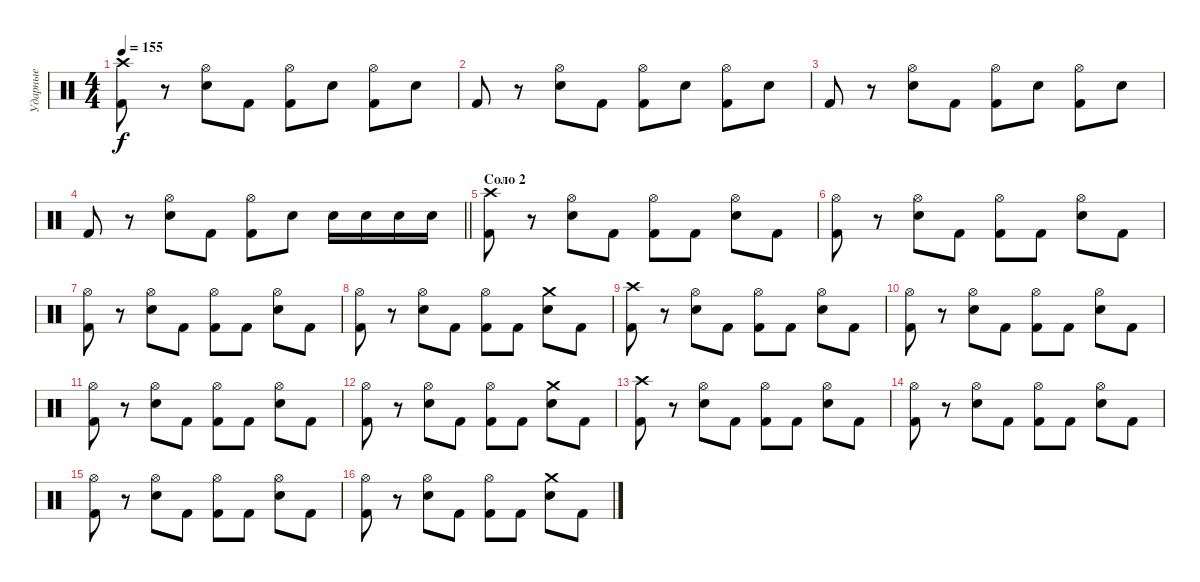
\track ("Ударные" "Ударные") {instrument percussion}
\staff {score}
\articulation defaults
\ts (4 4)
\tempo 155
\clef neutral
\ks c
("Crash high (hit)" "Kick (hit) 2").8{dy f} r.8 ("Hi-Hat (open)" "Electric Snare (hit)").8 "Kick (hit) 2".8 ("Hi-Hat (open)" "Kick (hit) 2").8 "Electric Snare (hit)".8 ("Hi-Hat (open)" "Kick (hit) 2").8 "Electric Snare (hit)".8 |
"Kick (hit) 2".8 r.8 ("Hi-Hat (open)" "Electric Snare (hit)").8 "Kick (hit) 2".8 ("Hi-Hat (open)" "Kick (hit) 2").8 "Electric Snare (hit)".8 ("Hi-Hat (open)" "Kick (hit) 2").8 "Electric Snare (hit)".8 |
"Kick (hit) 2".8 r.8 ("Hi-Hat (open)" "Electric Snare (hit)").8 "Kick (hit) 2".8 ("Hi-Hat (open)" "Kick (hit) 2").8 "Electric Snare (hit)".8 ("Hi-Hat (open)" "Kick (hit) 2").8 "Electric Snare (hit)".8 |
\barLineRight lightlight "Kick (hit) 2".8
r.8 ("Hi-Hat (open)" "Electric Snare (hit)").8 "Kick (hit) 2".8 ("Hi-Hat (open)" "Kick (hit) 2").8 "Electric Snare (hit)".8 "Electric Snare (hit)".16 "Electric Snare (hit)".16 "Electric Snare (hit)".16 "Electric Snare (hit)".16 |
\section ("" "Соло 2")
("Crash high (hit)" "Kick (hit) 2").8 r.8 ("Hi-Hat (open)" "Electric Snare (hit)").8 "Kick (hit) 2".8 ("Hi-Hat (open)" "Kick (hit) 2").8 "Kick (hit) 2".8 ("Hi-Hat (open)" "Electric Snare (hit)").8 "Kick (hit) 2".8 |
("Hi-Hat (open)" "Kick (hit) 2").8 r.8 ("Hi-Hat (open)" "Electric Snare (hit)").8 "Kick (hit) 2".8 ("Hi-Hat (open)" "Kick (hit) 2").8 "Kick (hit) 2".8 ("Hi-Hat (open)" "Electric Snare (hit)").8 "Kick (hit) 2".8 |
("Hi-Hat (open)" "Kick (hit) 2").8 r.8 ("Hi-Hat (open)" "Electric Snare (hit)").8 "Kick (hit) 2".8 ("Hi-Hat (open)" "Kick (hit) 2").8 "Kick (hit) 2".8 ("Hi-Hat (open)" "Electric Snare (hit)").8 "Kick (hit) 2".8 |
("Hi-Hat (open)" "Kick (hit) 2").8 r.8 ("Hi-Hat (open)" "Electric Snare (hit)").8 "Kick (hit) 2".8 ("Hi-Hat (open)" "Kick (hit) 2").8 "Kick (hit) 2".8 ("Crash medium (hit)" "Electric Snare (hit)").8 "Kick (hit) 2".8 |
("Crash high (hit)" "Kick (hit) 2").8 r.8 ("Hi-Hat (open)" "Electric Snare (hit)").8 "Kick (hit) 2".8 ("Hi-Hat (open)" "Kick (hit) 2").8 "Kick (hit) 2".8 ("Hi-Hat (open)" "Electric Snare (hit)").8 "Kick (hit) 2".8 |
("Hi-Hat (open)" "Kick (hit) 2").8 r.8 ("Hi-Hat (open)" "Electric Snare (hit)").8 "Kick (hit) 2".8 ("Hi-Hat (open)" "Kick (hit) 2").8 "Kick (hit) 2".8 ("Hi-Hat (open)" "Electric Snare (hit)").8 "Kick (hit) 2".8 |
("Hi-Hat (open)" "Kick (hit) 2").8 r.8 ("Hi-Hat (open)" "Electric Snare (hit)").8 "Kick (hit) 2".8 ("Hi-Hat (open)" "Kick (hit) 2").8 "Kick (hit) 2".8 ("Hi-Hat (open)" "Electric Snare (hit)").8 "Kick (hit) 2".8 |
("Hi-Hat (open)" "Kick (hit) 2").8 r.8 ("Hi-Hat (open)" "Electric Snare (hit)").8 "Kick (hit) 2".8 ("Hi-Hat (open)" "Kick (hit) 2").8 "Kick (hit) 2".8 ("Crash medium (hit)" "Electric Snare (hit)").8 "Kick (hit) 2".8 |
("Crash high (hit)" "Kick (hit) 2").8 r.8 ("Hi-Hat (open)" "Electric Snare (hit)").8 "Kick (hit) 2".8 ("Hi-Hat (open)" "Kick (hit) 2").8 "Kick (hit) 2".8 ("Hi-Hat (open)" "Electric Snare (hit)").8 "Kick (hit) 2".8 |
("Hi-Hat (open)" "Kick (hit) 2").8 r.8 ("Hi-Hat (open)" "Electric Snare (hit)").8 "Kick (hit) 2".8 ("Hi-Hat (open)" "Kick (hit) 2").8 "Kick (hit) 2".8 ("Hi-Hat (open)" "Electric Snare (hit)").8 "Kick (hit) 2".8 |
("Hi-Hat (open)" "Kick (hit) 2").8 r.8 ("Hi-Hat (open)" "Electric Snare (hit)").8 "Kick (hit) 2".8 ("Hi-Hat (open)" "Kick (hit) 2").8 "Kick (hit) 2".8 ("Hi-Hat (open)" "Electric Snare (hit)").8 "Kick (hit) 2".8 |
("Hi-Hat (open)" "Kick (hit) 2").8 r.8 ("Hi-Hat (open)" "Electric Snare (hit)").8 "Kick (hit) 2".8 ("Hi-Hat (open)" "Kick (hit) 2").8 "Kick (hit) 2".8 ("Crash medium (hit)" "Electric Snare (hit)").8 "Kick (hit) 2".8
